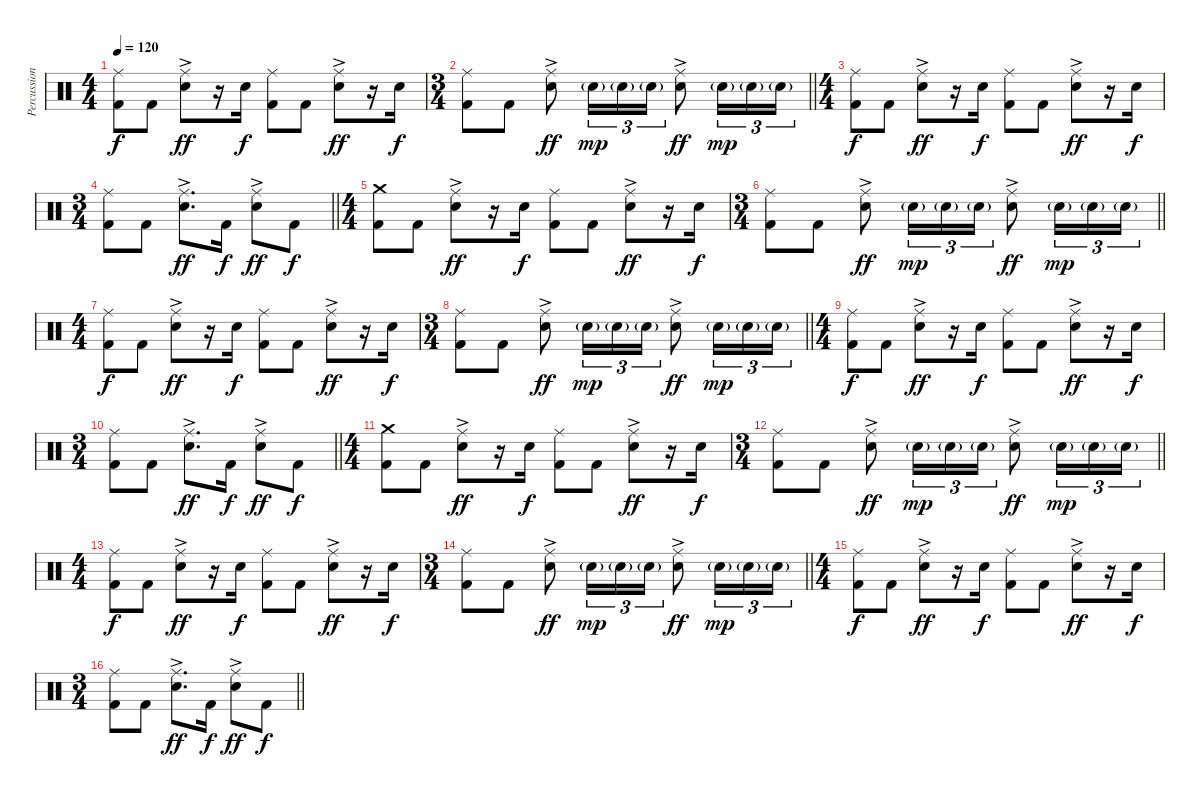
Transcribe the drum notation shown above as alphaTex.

\track ("Percussion" "Percussion") {instrument percussion}
\staff {score}
\articulation defaults
\ts (4 4)
\tempo 120
\clef neutral
\ks c
("Ride (middle)" "Kick (hit) 2").8{dy f} "Kick (hit) 2".8 ("Ride (middle)" "Electric Snare (hit)"{ac}).8{dy ff} r.16 "Electric Snare (hit)".16{dy f} ("Ride (middle)" "Kick (hit) 2").8 "Kick (hit) 2".8 ("Ride (middle)" "Electric Snare (hit)"{ac}).8{dy ff} r.16 "Electric Snare (hit)".16{dy f} |
\ts (3 4)
\barLineRight lightlight
("Ride (middle)" "Kick (hit) 2").8 "Kick (hit) 2".8 ("Ride (middle)" "Electric Snare (hit)"{ac}).8{dy ff} "Electric Snare (hit)"{g}.16{tu (3 2) dy mp} "Electric Snare (hit)"{g}.16{tu (3 2)} "Electric Snare (hit)"{g}.16{tu (3 2)} ("Ride (middle)" "Electric Snare (hit)"{ac}).8{dy ff} "Electric Snare (hit)"{g}.16{tu (3 2) dy mp} "Electric Snare (hit)"{g}.16{tu (3 2)} "Electric Snare (hit)"{g}.16{tu (3 2)} |
\ts (4 4)
("Ride (middle)" "Kick (hit) 2").8{dy f} "Kick (hit) 2".8 ("Ride (middle)" "Electric Snare (hit)"{ac}).8{dy ff} r.16 "Electric Snare (hit)".16{dy f} ("Ride (middle)" "Kick (hit) 2").8 "Kick (hit) 2".8 ("Ride (middle)" "Electric Snare (hit)"{ac}).8{dy ff} r.16 "Electric Snare (hit)".16{dy f} |
\ts (3 4)
\barLineRight lightlight
("Ride (middle)" "Kick (hit) 2").8 "Kick (hit) 2".8 ("Ride (middle)" "Electric Snare (hit)"{ac}).8{d dy ff} "Kick (hit) 2".16{dy f} ("Ride (middle)" "Electric Snare (hit)"{ac}).8{dy ff} "Kick (hit) 2".8{dy f} |
\ts (4 4)
("Crash medium (hit)" "Kick (hit) 2").8 "Kick (hit) 2".8 ("Ride (middle)" "Electric Snare (hit)"{ac}).8{dy ff} r.16 "Electric Snare (hit)".16{dy f} ("Ride (middle)" "Kick (hit) 2").8 "Kick (hit) 2".8 ("Ride (middle)" "Electric Snare (hit)"{ac}).8{dy ff} r.16 "Electric Snare (hit)".16{dy f} |
\ts (3 4)
\barLineRight lightlight
("Ride (middle)" "Kick (hit) 2").8 "Kick (hit) 2".8 ("Ride (middle)" "Electric Snare (hit)"{ac}).8{dy ff} "Electric Snare (hit)"{g}.16{tu (3 2) dy mp} "Electric Snare (hit)"{g}.16{tu (3 2)} "Electric Snare (hit)"{g}.16{tu (3 2)} ("Ride (middle)" "Electric Snare (hit)"{ac}).8{dy ff} "Electric Snare (hit)"{g}.16{tu (3 2) dy mp} "Electric Snare (hit)"{g}.16{tu (3 2)} "Electric Snare (hit)"{g}.16{tu (3 2)} |
\ts (4 4)
("Ride (middle)" "Kick (hit) 2").8{dy f} "Kick (hit) 2".8 ("Ride (middle)" "Electric Snare (hit)"{ac}).8{dy ff} r.16 "Electric Snare (hit)".16{dy f} ("Ride (middle)" "Kick (hit) 2").8 "Kick (hit) 2".8 ("Ride (middle)" "Electric Snare (hit)"{ac}).8{dy ff} r.16 "Electric Snare (hit)".16{dy f} |
\ts (3 4)
\barLineRight lightlight
("Ride (middle)" "Kick (hit) 2").8 "Kick (hit) 2".8 ("Ride (middle)" "Electric Snare (hit)"{ac}).8{dy ff} "Electric Snare (hit)"{g}.16{tu (3 2) dy mp} "Electric Snare (hit)"{g}.16{tu (3 2)} "Electric Snare (hit)"{g}.16{tu (3 2)} ("Ride (middle)" "Electric Snare (hit)"{ac}).8{dy ff} "Electric Snare (hit)"{g}.16{tu (3 2) dy mp} "Electric Snare (hit)"{g}.16{tu (3 2)} "Electric Snare (hit)"{g}.16{tu (3 2)} |
\ts (4 4)
("Ride (middle)" "Kick (hit) 2").8{dy f} "Kick (hit) 2".8 ("Ride (middle)" "Electric Snare (hit)"{ac}).8{dy ff} r.16 "Electric Snare (hit)".16{dy f} ("Ride (middle)" "Kick (hit) 2").8 "Kick (hit) 2".8 ("Ride (middle)" "Electric Snare (hit)"{ac}).8{dy ff} r.16 "Electric Snare (hit)".16{dy f} |
\ts (3 4)
\barLineRight lightlight
("Ride (middle)" "Kick (hit) 2").8 "Kick (hit) 2".8 ("Ride (middle)" "Electric Snare (hit)"{ac}).8{d dy ff} "Kick (hit) 2".16{dy f} ("Ride (middle)" "Electric Snare (hit)"{ac}).8{dy ff} "Kick (hit) 2".8{dy f} |
\ts (4 4)
("Crash medium (hit)" "Kick (hit) 2").8 "Kick (hit) 2".8 ("Ride (middle)" "Electric Snare (hit)"{ac}).8{dy ff} r.16 "Electric Snare (hit)".16{dy f} ("Ride (middle)" "Kick (hit) 2").8 "Kick (hit) 2".8 ("Ride (middle)" "Electric Snare (hit)"{ac}).8{dy ff} r.16 "Electric Snare (hit)".16{dy f} |
\ts (3 4)
\barLineRight lightlight
("Ride (middle)" "Kick (hit) 2").8 "Kick (hit) 2".8 ("Ride (middle)" "Electric Snare (hit)"{ac}).8{dy ff} "Electric Snare (hit)"{g}.16{tu (3 2) dy mp} "Electric Snare (hit)"{g}.16{tu (3 2)} "Electric Snare (hit)"{g}.16{tu (3 2)} ("Ride (middle)" "Electric Snare (hit)"{ac}).8{dy ff} "Electric Snare (hit)"{g}.16{tu (3 2) dy mp} "Electric Snare (hit)"{g}.16{tu (3 2)} "Electric Snare (hit)"{g}.16{tu (3 2)} |
\ts (4 4)
("Ride (middle)" "Kick (hit) 2").8{dy f} "Kick (hit) 2".8 ("Ride (middle)" "Electric Snare (hit)"{ac}).8{dy ff} r.16 "Electric Snare (hit)".16{dy f} ("Ride (middle)" "Kick (hit) 2").8 "Kick (hit) 2".8 ("Ride (middle)" "Electric Snare (hit)"{ac}).8{dy ff} r.16 "Electric Snare (hit)".16{dy f} |
\ts (3 4)
\barLineRight lightlight
("Ride (middle)" "Kick (hit) 2").8 "Kick (hit) 2".8 ("Ride (middle)" "Electric Snare (hit)"{ac}).8{dy ff} "Electric Snare (hit)"{g}.16{tu (3 2) dy mp} "Electric Snare (hit)"{g}.16{tu (3 2)} "Electric Snare (hit)"{g}.16{tu (3 2)} ("Ride (middle)" "Electric Snare (hit)"{ac}).8{dy ff} "Electric Snare (hit)"{g}.16{tu (3 2) dy mp} "Electric Snare (hit)"{g}.16{tu (3 2)} "Electric Snare (hit)"{g}.16{tu (3 2)} |
\ts (4 4)
("Ride (middle)" "Kick (hit) 2").8{dy f} "Kick (hit) 2".8 ("Ride (middle)" "Electric Snare (hit)"{ac}).8{dy ff} r.16 "Electric Snare (hit)".16{dy f} ("Ride (middle)" "Kick (hit) 2").8 "Kick (hit) 2".8 ("Ride (middle)" "Electric Snare (hit)"{ac}).8{dy ff} r.16 "Electric Snare (hit)".16{dy f} |
\ts (3 4)
\barLineRight lightlight
("Ride (middle)" "Kick (hit) 2").8 "Kick (hit) 2".8 ("Ride (middle)" "Electric Snare (hit)"{ac}).8{d dy ff} "Kick (hit) 2".16{dy f} ("Ride (middle)" "Electric Snare (hit)"{ac}).8{dy ff} "Kick (hit) 2".8{dy f}
